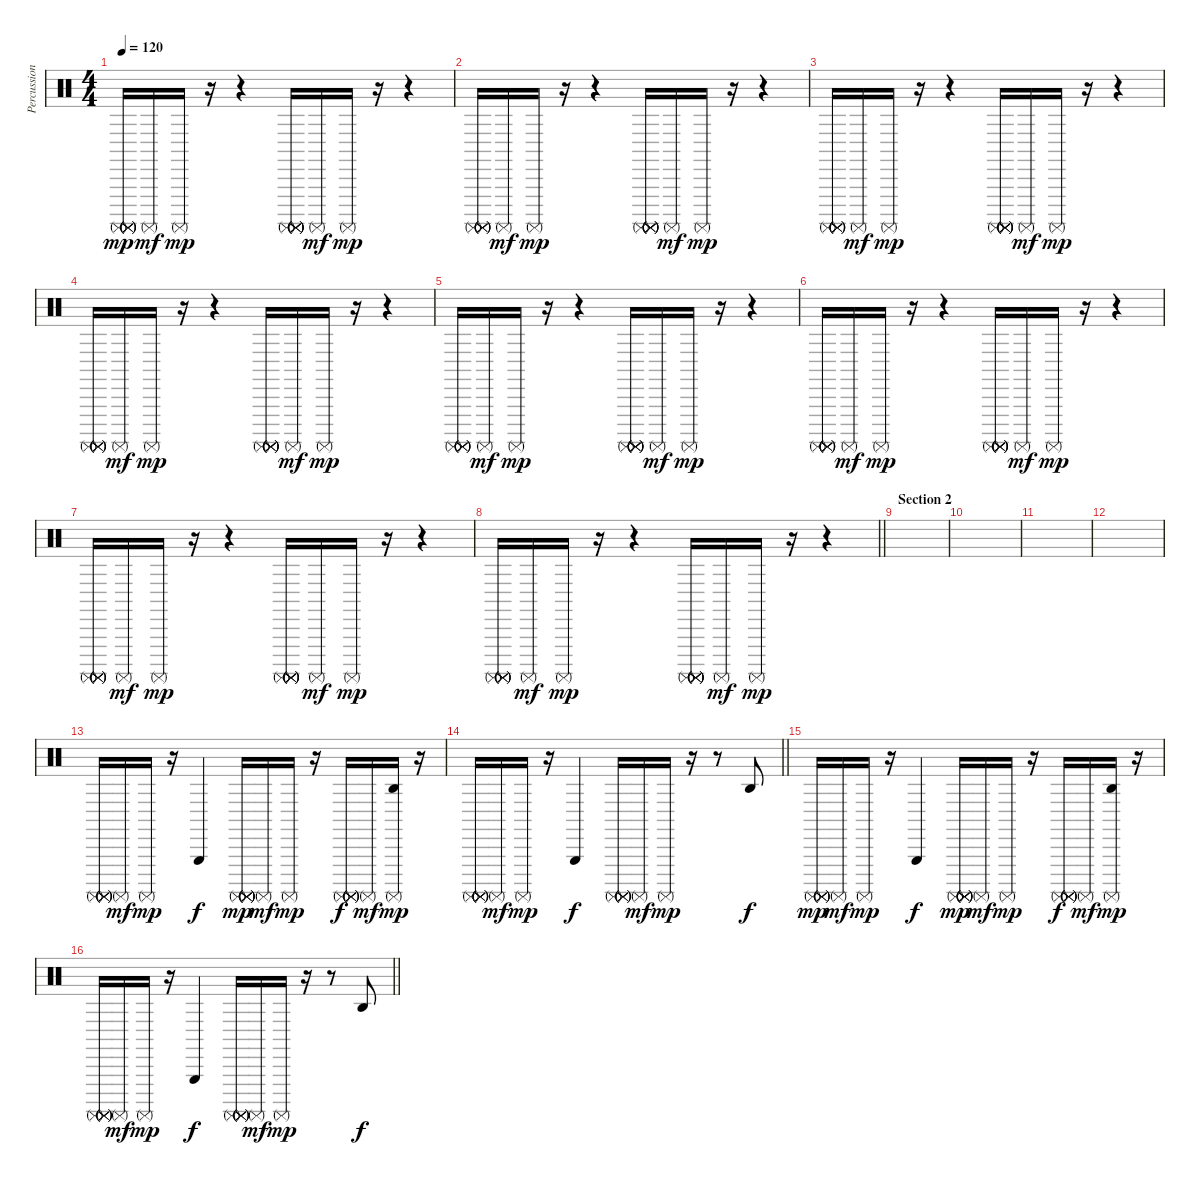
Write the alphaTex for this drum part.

\track ("Percussion" "Percussion") {instrument percussion}
\staff {score}
\articulation defaults
\ts (4 4)
\tempo 120
\clef neutral
\ks c
("Surdo (mute)" "Surdo (mute)" "Surdo (mute)" "Surdo (mute)" "Surdo (mute)").16{dy mp} "Surdo (mute)".16{dy mf} "Surdo (mute)".16{dy mp} r.16 r.4 ("Surdo (mute)" "Surdo (mute)" "Surdo (mute)" "Surdo (mute)" "Surdo (mute)" "Surdo (mute)").16 "Surdo (mute)".16{dy mf} "Surdo (mute)".16{dy mp} r.16 r.4 |
("Surdo (mute)" "Surdo (mute)" "Surdo (mute)" "Surdo (mute)" "Surdo (mute)").16 "Surdo (mute)".16{dy mf} "Surdo (mute)".16{dy mp} r.16 r.4 ("Surdo (mute)" "Surdo (mute)" "Surdo (mute)" "Surdo (mute)" "Surdo (mute)" "Surdo (mute)").16 "Surdo (mute)".16{dy mf} "Surdo (mute)".16{dy mp} r.16 r.4 |
("Surdo (mute)" "Surdo (mute)" "Surdo (mute)" "Surdo (mute)" "Surdo (mute)").16 "Surdo (mute)".16{dy mf} "Surdo (mute)".16{dy mp} r.16 r.4 ("Surdo (mute)" "Surdo (mute)" "Surdo (mute)" "Surdo (mute)" "Surdo (mute)" "Surdo (mute)").16 "Surdo (mute)".16{dy mf} "Surdo (mute)".16{dy mp} r.16 r.4 |
("Surdo (mute)" "Surdo (mute)" "Surdo (mute)" "Surdo (mute)" "Surdo (mute)").16 "Surdo (mute)".16{dy mf} "Surdo (mute)".16{dy mp} r.16 r.4 ("Surdo (mute)" "Surdo (mute)" "Surdo (mute)" "Surdo (mute)" "Surdo (mute)" "Surdo (mute)").16 "Surdo (mute)".16{dy mf} "Surdo (mute)".16{dy mp} r.16 r.4 |
("Surdo (mute)" "Surdo (mute)" "Surdo (mute)" "Surdo (mute)" "Surdo (mute)").16 "Surdo (mute)".16{dy mf} "Surdo (mute)".16{dy mp} r.16 r.4 ("Surdo (mute)" "Surdo (mute)" "Surdo (mute)" "Surdo (mute)" "Surdo (mute)" "Surdo (mute)").16 "Surdo (mute)".16{dy mf} "Surdo (mute)".16{dy mp} r.16 r.4 |
("Surdo (mute)" "Surdo (mute)" "Surdo (mute)" "Surdo (mute)" "Surdo (mute)").16 "Surdo (mute)".16{dy mf} "Surdo (mute)".16{dy mp} r.16 r.4 ("Surdo (mute)" "Surdo (mute)" "Surdo (mute)" "Surdo (mute)" "Surdo (mute)" "Surdo (mute)").16 "Surdo (mute)".16{dy mf} "Surdo (mute)".16{dy mp} r.16 r.4 |
("Surdo (mute)" "Surdo (mute)" "Surdo (mute)" "Surdo (mute)" "Surdo (mute)").16 "Surdo (mute)".16{dy mf} "Surdo (mute)".16{dy mp} r.16 r.4 ("Surdo (mute)" "Surdo (mute)" "Surdo (mute)" "Surdo (mute)" "Surdo (mute)" "Surdo (mute)").16 "Surdo (mute)".16{dy mf} "Surdo (mute)".16{dy mp} r.16 r.4 |
\barLineRight lightlight
("Surdo (mute)" "Surdo (mute)" "Surdo (mute)" "Surdo (mute)" "Surdo (mute)").16 "Surdo (mute)".16{dy mf} "Surdo (mute)".16{dy mp} r.16 r.4 ("Surdo (mute)" "Surdo (mute)" "Surdo (mute)" "Surdo (mute)" "Surdo (mute)" "Surdo (mute)").16 "Surdo (mute)".16{dy mf} "Surdo (mute)".16{dy mp} r.16 r.4 |
\section ("" "Section 2")
|
|
|
|
("Surdo (mute)" "Surdo (mute)" "Surdo (mute)" "Surdo (mute)" "Surdo (mute)").16 "Surdo (mute)".16{dy mf} "Surdo (mute)".16{dy mp} r.16 "Triangle (hit)".4{dy f} ("Surdo (mute)" "Surdo (mute)" "Surdo (mute)" "Surdo (mute)" "Surdo (mute)" "Surdo (mute)").16{dy mp} "Surdo (mute)".16{dy mf} "Surdo (mute)".16{dy mp} r.16 ("Surdo (mute)" "Surdo (mute)" "Surdo (mute)" "Surdo (mute)" "Surdo (mute)").16{dy f} "Surdo (mute)".16{dy mf} ("Agogo high (hit)" "Surdo (mute)").16{dy mp} r.16 |
\barLineRight lightlight
("Surdo (mute)" "Surdo (mute)" "Surdo (mute)" "Surdo (mute)" "Surdo (mute)").16 "Surdo (mute)".16{dy mf} "Surdo (mute)".16{dy mp} r.16 "Triangle (hit)".4{dy f} ("Surdo (mute)" "Surdo (mute)" "Surdo (mute)" "Surdo (mute)" "Surdo (mute)").16 "Surdo (mute)".16{dy mf} "Surdo (mute)".16{dy mp} r.16 r.8 "Agogo high (hit)".8{dy f} |
("Surdo (mute)" "Surdo (mute)" "Surdo (mute)" "Surdo (mute)" "Surdo (mute)").16{dy mp} "Surdo (mute)".16{dy mf} "Surdo (mute)".16{dy mp} r.16 "Triangle (hit)".4{dy f} ("Surdo (mute)" "Surdo (mute)" "Surdo (mute)" "Surdo (mute)" "Surdo (mute)" "Surdo (mute)").16{dy mp} "Surdo (mute)".16{dy mf} "Surdo (mute)".16{dy mp} r.16 ("Surdo (mute)" "Surdo (mute)" "Surdo (mute)" "Surdo (mute)" "Surdo (mute)").16{dy f} "Surdo (mute)".16{dy mf} ("Agogo high (hit)" "Surdo (mute)").16{dy mp} r.16 |
\barLineRight lightlight
("Surdo (mute)" "Surdo (mute)" "Surdo (mute)" "Surdo (mute)" "Surdo (mute)").16 "Surdo (mute)".16{dy mf} "Surdo (mute)".16{dy mp} r.16 "Triangle (hit)".4{dy f} ("Surdo (mute)" "Surdo (mute)" "Surdo (mute)" "Surdo (mute)" "Surdo (mute)").16 "Surdo (mute)".16{dy mf} "Surdo (mute)".16{dy mp} r.16 r.8 "Agogo high (hit)".8{dy f}
